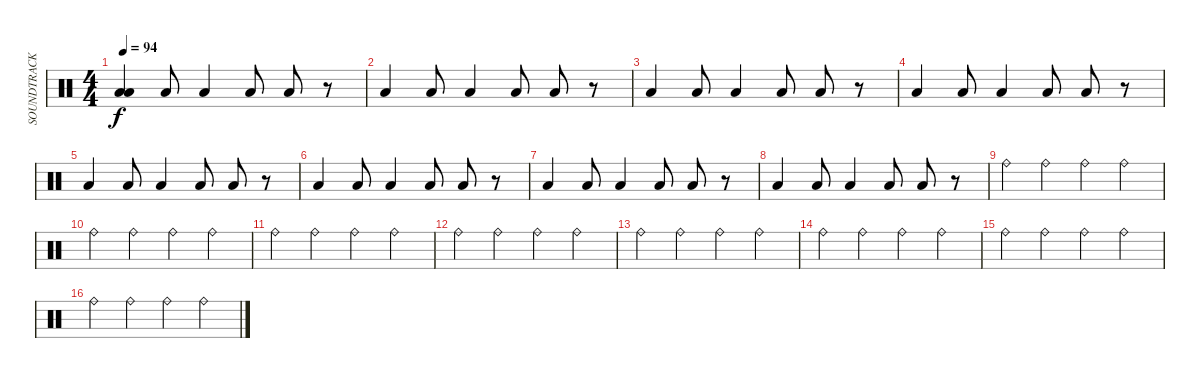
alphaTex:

\track ("SOUNDTRACK" "SOUNDTRACK") {instrument percussion}
\staff {score}
\articulation defaults
\ts (4 4)
\tempo 94
\clef neutral
\ks c
("Low Floor Tom (hit)" "Low Tom (hit)").4{dy f} "Low Tom (hit)".8 "Low Floor Tom (hit)".4 "Low Floor Tom (hit)".8 "Low Floor Tom (hit)".8 r.8 |
"Low Floor Tom (hit)".4 "Low Tom (hit)".8 "Low Floor Tom (hit)".4 "Low Floor Tom (hit)".8 "Low Floor Tom (hit)".8 r.8 |
"Low Floor Tom (hit)".4 "Low Tom (hit)".8 "Low Floor Tom (hit)".4 "Low Floor Tom (hit)".8 "Low Floor Tom (hit)".8 r.8 |
"Low Floor Tom (hit)".4 "Low Tom (hit)".8 "Low Floor Tom (hit)".4 "Low Floor Tom (hit)".8 "Low Floor Tom (hit)".8 r.8 |
"Low Floor Tom (hit)".4 "Low Tom (hit)".8 "Low Floor Tom (hit)".4 "Low Floor Tom (hit)".8 "Low Floor Tom (hit)".8 r.8 |
"Low Floor Tom (hit)".4 "Low Tom (hit)".8 "Low Floor Tom (hit)".4 "Low Floor Tom (hit)".8 "Low Floor Tom (hit)".8 r.8 |
"Low Floor Tom (hit)".4 "Low Tom (hit)".8 "Low Floor Tom (hit)".4 "Low Floor Tom (hit)".8 "Low Floor Tom (hit)".8 r.8 |
"Low Floor Tom (hit)".4 "Low Tom (hit)".8 "Low Floor Tom (hit)".4 "Low Floor Tom (hit)".8 "Low Floor Tom (hit)".8 r.8 |
"Ride (bell)".4{volume 14} "Ride (bell)".4 "Ride (bell)".4 "Ride (bell)".4 |
"Ride (bell)".4 "Ride (bell)".4 "Ride (bell)".4 "Ride (bell)".4 |
"Ride (bell)".4 "Ride (bell)".4 "Ride (bell)".4 "Ride (bell)".4 |
"Ride (bell)".4 "Ride (bell)".4 "Ride (bell)".4 "Ride (bell)".4 |
"Ride (bell)".4 "Ride (bell)".4 "Ride (bell)".4 "Ride (bell)".4 |
"Ride (bell)".4 "Ride (bell)".4 "Ride (bell)".4 "Ride (bell)".4 |
"Ride (bell)".4 "Ride (bell)".4 "Ride (bell)".4 "Ride (bell)".4 |
"Ride (bell)".4 "Ride (bell)".4 "Ride (bell)".4 "Ride (bell)".4
